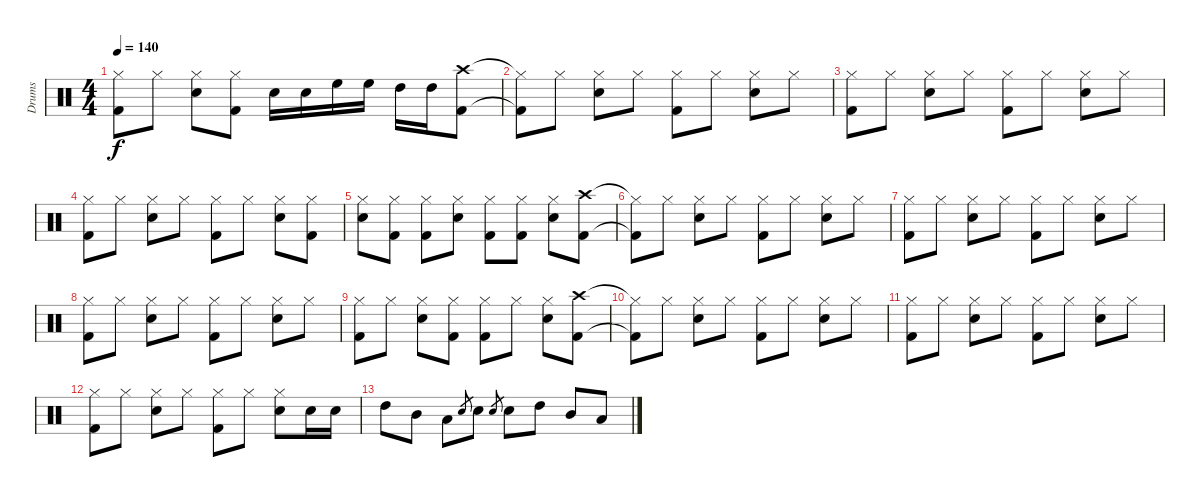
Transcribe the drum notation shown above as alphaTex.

\track ("Drums" "Drums") {instrument percussion}
\staff {score}
\articulation defaults
\ts (4 4)
\tempo 140
\clef neutral
\ks c
("Hi-Hat (closed)" "Kick (hit) 2").8{dy f} "Hi-Hat (closed)".8 ("Hi-Hat (closed)" "Electric Snare (hit)").8 ("Hi-Hat (closed)" "Kick (hit) 2").8 "Electric Snare (hit)".16 "Electric Snare (hit)".16 "High Floor Tom (hit)".16 "High Floor Tom (hit)".16 "High Tom (hit)".16 "High Tom (hit)".16 ("Crash high (hit)" "Kick (hit) 2").8 |
("Hi-Hat (closed)"{t} "Kick (hit) 2"{t}).8 "Hi-Hat (closed)".8 ("Hi-Hat (closed)" "Electric Snare (hit)").8 "Hi-Hat (closed)".8 ("Hi-Hat (closed)" "Kick (hit) 2").8 "Hi-Hat (closed)".8 ("Hi-Hat (closed)" "Electric Snare (hit)").8 "Hi-Hat (closed)".8 |
("Hi-Hat (closed)" "Kick (hit) 2").8 "Hi-Hat (closed)".8 ("Hi-Hat (closed)" "Electric Snare (hit)").8 "Hi-Hat (closed)".8 ("Hi-Hat (closed)" "Kick (hit) 2").8 "Hi-Hat (closed)".8 ("Hi-Hat (closed)" "Electric Snare (hit)").8 "Hi-Hat (closed)".8 |
("Hi-Hat (closed)" "Kick (hit) 2").8 "Hi-Hat (closed)".8 ("Hi-Hat (closed)" "Electric Snare (hit)").8 "Hi-Hat (closed)".8 ("Hi-Hat (closed)" "Kick (hit) 2").8 "Hi-Hat (closed)".8 ("Hi-Hat (closed)" "Electric Snare (hit)").8 ("Hi-Hat (closed)" "Kick (hit) 2").8 |
("Hi-Hat (closed)" "Electric Snare (hit)").8 ("Hi-Hat (closed)" "Kick (hit) 2").8 ("Hi-Hat (closed)" "Kick (hit) 2").8 ("Hi-Hat (closed)" "Electric Snare (hit)").8 ("Hi-Hat (closed)" "Kick (hit) 2").8 ("Hi-Hat (closed)" "Kick (hit) 2").8 ("Hi-Hat (closed)" "Electric Snare (hit)").8 ("Crash high (hit)" "Kick (hit) 2").8 |
("Hi-Hat (closed)"{t} "Kick (hit) 2"{t}).8 "Hi-Hat (closed)".8 ("Hi-Hat (closed)" "Electric Snare (hit)").8 "Hi-Hat (closed)".8 ("Hi-Hat (closed)" "Kick (hit) 2").8 "Hi-Hat (closed)".8 ("Hi-Hat (closed)" "Electric Snare (hit)").8 "Hi-Hat (closed)".8 |
("Hi-Hat (closed)" "Kick (hit) 2").8 "Hi-Hat (closed)".8 ("Hi-Hat (closed)" "Electric Snare (hit)").8 "Hi-Hat (closed)".8 ("Hi-Hat (closed)" "Kick (hit) 2").8 "Hi-Hat (closed)".8 ("Hi-Hat (closed)" "Electric Snare (hit)").8 "Hi-Hat (closed)".8 |
("Hi-Hat (closed)" "Kick (hit) 2").8 "Hi-Hat (closed)".8 ("Hi-Hat (closed)" "Electric Snare (hit)").8 "Hi-Hat (closed)".8 ("Hi-Hat (closed)" "Kick (hit) 2").8 "Hi-Hat (closed)".8 ("Hi-Hat (closed)" "Electric Snare (hit)").8 "Hi-Hat (closed)".8 |
("Hi-Hat (closed)" "Kick (hit) 2").8 "Hi-Hat (closed)".8 ("Hi-Hat (closed)" "Electric Snare (hit)").8 ("Hi-Hat (closed)" "Kick (hit) 2").8 ("Hi-Hat (closed)" "Kick (hit) 2").8 "Hi-Hat (closed)".8 ("Hi-Hat (closed)" "Electric Snare (hit)").8 ("Crash high (hit)" "Kick (hit) 2").8 |
("Hi-Hat (closed)"{t} "Kick (hit) 2"{t}).8 "Hi-Hat (closed)".8 ("Hi-Hat (closed)" "Electric Snare (hit)").8 "Hi-Hat (closed)".8 ("Hi-Hat (closed)" "Kick (hit) 2").8 "Hi-Hat (closed)".8 ("Hi-Hat (closed)" "Electric Snare (hit)").8 "Hi-Hat (closed)".8 |
("Hi-Hat (closed)" "Kick (hit) 2").8 "Hi-Hat (closed)".8 ("Hi-Hat (closed)" "Electric Snare (hit)").8 "Hi-Hat (closed)".8 ("Hi-Hat (closed)" "Kick (hit) 2").8 "Hi-Hat (closed)".8 ("Hi-Hat (closed)" "Electric Snare (hit)").8 "Hi-Hat (closed)".8 |
("Hi-Hat (closed)" "Kick (hit) 2").8 "Hi-Hat (closed)".8 ("Hi-Hat (closed)" "Electric Snare (hit)").8 "Hi-Hat (closed)".8 ("Hi-Hat (closed)" "Kick (hit) 2").8 "Hi-Hat (closed)".8 ("Hi-Hat (closed)" "Electric Snare (hit)").8 "Electric Snare (hit)".16 "Electric Snare (hit)".16 |
"High Tom (hit)".8 "Mid Tom (hit)".8 "Low Tom (hit)".8 "Electric Snare (hit)".8{gr} "Electric Snare (hit)".8 "Electric Snare (hit)".8{gr} "Electric Snare (hit)".8 "High Tom (hit)".8 "Mid Tom (hit)".8 "Low Tom (hit)".8
